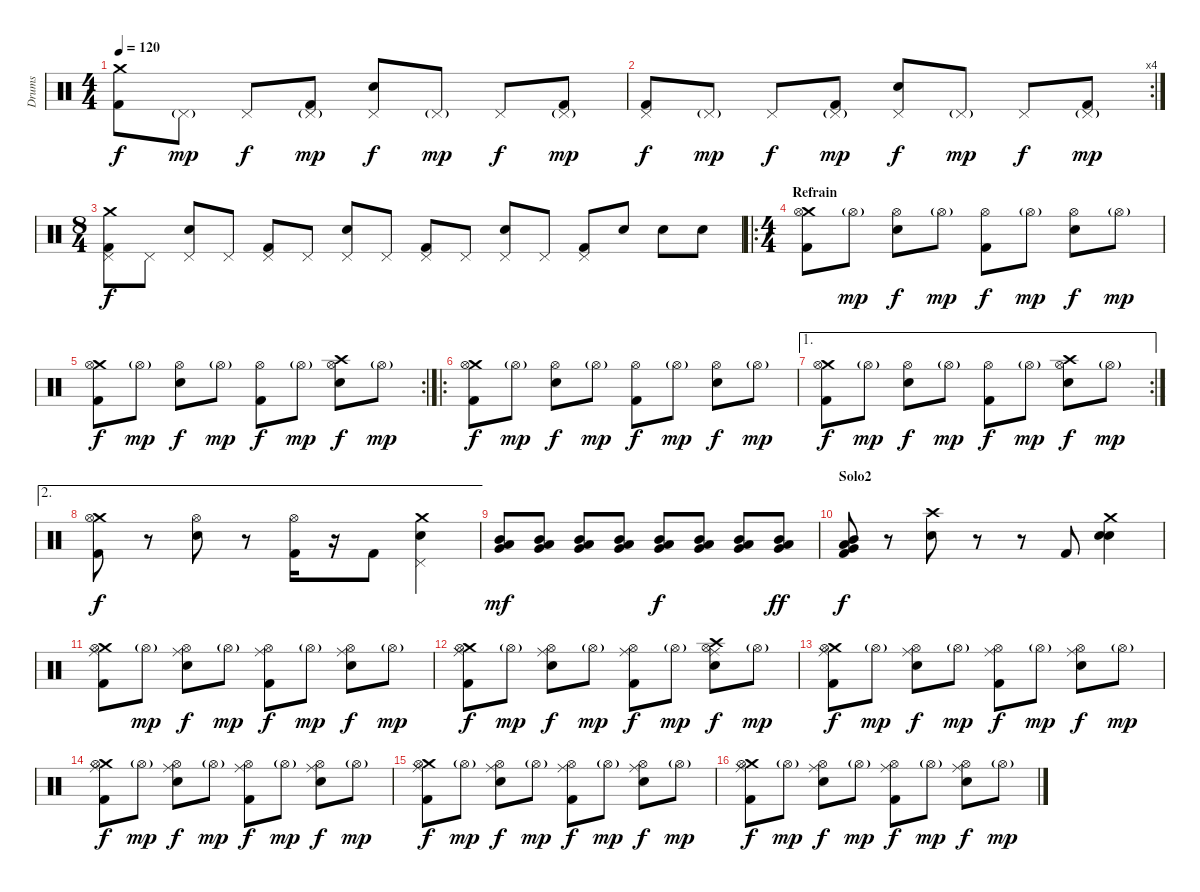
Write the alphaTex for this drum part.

\track ("Drums" "Drums") {instrument percussion}
\staff {score}
\articulation defaults
\ts (4 4)
\tempo 120
\clef neutral
\ks c
("Crash medium (hit)" "Kick (hit) 2").8{dy f} "Pedal Hi-Hat (hit)"{g}.8{dy mp} "Pedal Hi-Hat (hit)".8{dy f} ("Pedal Hi-Hat (hit)"{g} "Kick (hit) 2").8{dy mp} ("Pedal Hi-Hat (hit)" "Electric Snare (hit)").8{dy f} "Pedal Hi-Hat (hit)"{g}.8{dy mp} "Pedal Hi-Hat (hit)".8{dy f} ("Pedal Hi-Hat (hit)"{g} "Kick (hit) 2").8{dy mp} |
\rc 4
("Pedal Hi-Hat (hit)" "Kick (hit) 2").8{dy f} "Pedal Hi-Hat (hit)"{g}.8{dy mp} "Pedal Hi-Hat (hit)".8{dy f} ("Pedal Hi-Hat (hit)"{g} "Kick (hit) 2").8{dy mp} ("Pedal Hi-Hat (hit)" "Electric Snare (hit)").8{dy f} "Pedal Hi-Hat (hit)"{g}.8{dy mp} "Pedal Hi-Hat (hit)".8{dy f} ("Pedal Hi-Hat (hit)"{g} "Kick (hit) 2").8{dy mp} |
\ts (8 4)
("Crash medium (hit)" "Pedal Hi-Hat (hit)" "Kick (hit) 2").8{dy f} "Pedal Hi-Hat (hit)".8 ("Pedal Hi-Hat (hit)" "Electric Snare (hit)").8 "Pedal Hi-Hat (hit)".8 ("Pedal Hi-Hat (hit)" "Kick (hit) 2").8 "Pedal Hi-Hat (hit)".8 ("Pedal Hi-Hat (hit)" "Electric Snare (hit)").8 "Pedal Hi-Hat (hit)".8 ("Pedal Hi-Hat (hit)" "Kick (hit) 2").8 "Pedal Hi-Hat (hit)".8 ("Pedal Hi-Hat (hit)" "Electric Snare (hit)").8 "Pedal Hi-Hat (hit)".8 ("Pedal Hi-Hat (hit)" "Kick (hit) 2").8 "Electric Snare (hit)".8 "Electric Snare (hit)".8 "Electric Snare (hit)".8 |
\ro
\ts (4 4)
\section ("" "Refrain")
("Crash medium (hit)" "Hi-Hat (open)" "Kick (hit) 2").8 "Hi-Hat (open)"{g}.8{dy mp} ("Hi-Hat (open)" "Electric Snare (hit)").8{dy f} "Hi-Hat (open)"{g}.8{dy mp} ("Hi-Hat (open)" "Kick (hit) 2").8{dy f} "Hi-Hat (open)"{g}.8{dy mp} ("Hi-Hat (open)" "Electric Snare (hit)").8{dy f} "Hi-Hat (open)"{g}.8{dy mp} |
\rc 2
("Crash medium (hit)" "Hi-Hat (open)" "Kick (hit) 2").8{dy f} "Hi-Hat (open)"{g}.8{dy mp} ("Hi-Hat (open)" "Electric Snare (hit)").8{dy f} "Hi-Hat (open)"{g}.8{dy mp} ("Hi-Hat (open)" "Kick (hit) 2").8{dy f} "Hi-Hat (open)"{g}.8{dy mp} ("Crash high (hit)" "Hi-Hat (open)" "Electric Snare (hit)").8{dy f} "Hi-Hat (open)"{g}.8{dy mp} |
\ro
("Crash medium (hit)" "Hi-Hat (open)" "Kick (hit) 2").8{dy f} "Hi-Hat (open)"{g}.8{dy mp} ("Hi-Hat (open)" "Electric Snare (hit)").8{dy f} "Hi-Hat (open)"{g}.8{dy mp} ("Hi-Hat (open)" "Kick (hit) 2").8{dy f} "Hi-Hat (open)"{g}.8{dy mp} ("Hi-Hat (open)" "Electric Snare (hit)").8{dy f} "Hi-Hat (open)"{g}.8{dy mp} |
\ae 1
\rc 2
("Crash medium (hit)" "Hi-Hat (open)" "Kick (hit) 2").8{dy f} "Hi-Hat (open)"{g}.8{dy mp} ("Hi-Hat (open)" "Electric Snare (hit)").8{dy f} "Hi-Hat (open)"{g}.8{dy mp} ("Hi-Hat (open)" "Kick (hit) 2").8{dy f} "Hi-Hat (open)"{g}.8{dy mp} ("Crash high (hit)" "Hi-Hat (open)" "Electric Snare (hit)").8{dy f} "Hi-Hat (open)"{g}.8{dy mp} |
\ae 2
("Crash medium (hit)" "Hi-Hat (open)" "Kick (hit) 2").8{dy f} r.8 ("Hi-Hat (open)" "Electric Snare (hit)").8 r.8 ("Hi-Hat (open)" "Kick (hit) 2").16 r.16 "Kick (hit) 2".8 ("Crash medium (hit)" "Pedal Hi-Hat (hit)" "Electric Snare (hit)").4 |
("Low Tom (hit)" "Mid Tom (hit)" "Very Low Tom (hit)").8{dy mf} ("Low Tom (hit)" "Mid Tom (hit)" "Very Low Tom (hit)").8 ("Low Tom (hit)" "Mid Tom (hit)" "Very Low Tom (hit)").8 ("Low Tom (hit)" "Mid Tom (hit)" "Very Low Tom (hit)").8 ("Low Tom (hit)" "Mid Tom (hit)" "Very Low Tom (hit)").8{dy f} ("Low Tom (hit)" "Mid Tom (hit)" "Very Low Tom (hit)").8 ("Low Tom (hit)" "Mid Tom (hit)" "Very Low Tom (hit)").8 ("Low Tom (hit)" "Mid Tom (hit)" "Very Low Tom (hit)").8{dy ff} |
\section ("" "Solo2")
("Low Tom (hit)" "Mid Tom (hit)" "Very Low Tom (hit)" "Kick (hit) 2").8{dy f} r.8 ("Crash high (hit)" "Electric Snare (hit)").8 r.8 r.8 "Kick (hit) 2".8 ("Crash medium (hit)" "Snare (hit) 2" "Electric Snare (hit)").4 |
("Ride (middle)" "Crash medium (hit)" "Hi-Hat (open)" "Kick (hit) 2").8 "Hi-Hat (open)"{g}.8{dy mp} ("Ride (middle)" "Hi-Hat (open)" "Electric Snare (hit)").8{dy f} "Hi-Hat (open)"{g}.8{dy mp} ("Ride (middle)" "Hi-Hat (open)" "Kick (hit) 2").8{dy f} "Hi-Hat (open)"{g}.8{dy mp} ("Ride (middle)" "Hi-Hat (open)" "Electric Snare (hit)").8{dy f} "Hi-Hat (open)"{g}.8{dy mp} |
("Ride (middle)" "Crash medium (hit)" "Hi-Hat (open)" "Kick (hit) 2").8{dy f} "Hi-Hat (open)"{g}.8{dy mp} ("Ride (middle)" "Hi-Hat (open)" "Electric Snare (hit)").8{dy f} "Hi-Hat (open)"{g}.8{dy mp} ("Ride (middle)" "Hi-Hat (open)" "Kick (hit) 2").8{dy f} "Hi-Hat (open)"{g}.8{dy mp} ("Ride (middle)" "Crash high (hit)" "Hi-Hat (open)" "Electric Snare (hit)").8{dy f} "Hi-Hat (open)"{g}.8{dy mp} |
("Ride (middle)" "Crash medium (hit)" "Hi-Hat (open)" "Kick (hit) 2").8{dy f} "Hi-Hat (open)"{g}.8{dy mp} ("Ride (middle)" "Hi-Hat (open)" "Electric Snare (hit)").8{dy f} "Hi-Hat (open)"{g}.8{dy mp} ("Ride (middle)" "Hi-Hat (open)" "Kick (hit) 2").8{dy f} "Hi-Hat (open)"{g}.8{dy mp} ("Ride (middle)" "Hi-Hat (open)" "Electric Snare (hit)").8{dy f} "Hi-Hat (open)"{g}.8{dy mp} |
("Ride (middle)" "Crash medium (hit)" "Hi-Hat (open)" "Kick (hit) 2").8{dy f} "Hi-Hat (open)"{g}.8{dy mp} ("Ride (middle)" "Hi-Hat (open)" "Electric Snare (hit)").8{dy f} "Hi-Hat (open)"{g}.8{dy mp} ("Ride (middle)" "Hi-Hat (open)" "Kick (hit) 2").8{dy f} "Hi-Hat (open)"{g}.8{dy mp} ("Ride (middle)" "Hi-Hat (open)" "Electric Snare (hit)").8{dy f} "Hi-Hat (open)"{g}.8{dy mp} |
("Ride (middle)" "Crash medium (hit)" "Hi-Hat (open)" "Kick (hit) 2").8{dy f} "Hi-Hat (open)"{g}.8{dy mp} ("Ride (middle)" "Hi-Hat (open)" "Electric Snare (hit)").8{dy f} "Hi-Hat (open)"{g}.8{dy mp} ("Ride (middle)" "Hi-Hat (open)" "Kick (hit) 2").8{dy f} "Hi-Hat (open)"{g}.8{dy mp} ("Ride (middle)" "Hi-Hat (open)" "Electric Snare (hit)").8{dy f} "Hi-Hat (open)"{g}.8{dy mp} |
("Ride (middle)" "Crash medium (hit)" "Hi-Hat (open)" "Kick (hit) 2").8{dy f} "Hi-Hat (open)"{g}.8{dy mp} ("Ride (middle)" "Hi-Hat (open)" "Electric Snare (hit)").8{dy f} "Hi-Hat (open)"{g}.8{dy mp} ("Ride (middle)" "Hi-Hat (open)" "Kick (hit) 2").8{dy f} "Hi-Hat (open)"{g}.8{dy mp} ("Ride (middle)" "Hi-Hat (open)" "Electric Snare (hit)").8{dy f} "Hi-Hat (open)"{g}.8{dy mp}
